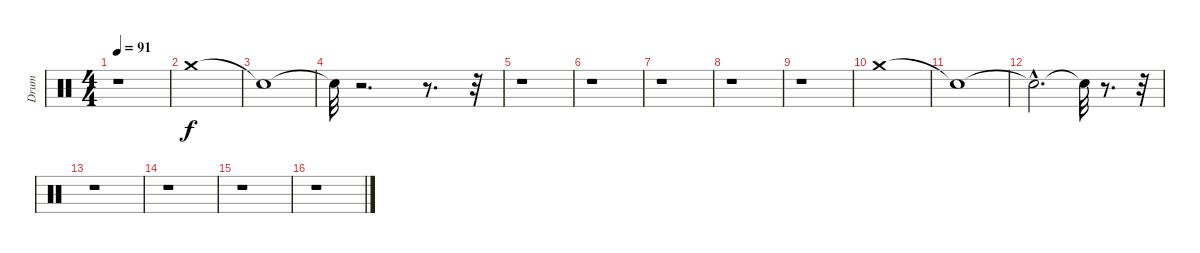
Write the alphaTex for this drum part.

\track ("Drum" "Drum") {instrument percussion}
\staff {score}
\articulation defaults
\ts (4 4)
\tempo 91
\clef neutral
\ks c
r.1{dy f} |
"Crash medium (hit)".1 |
"Snare (hit)"{t}.1 |
"Snare (hit)"{t}.32 r.2{d} r.8{d} r.32 |
r.1 |
r.1 |
r.1 |
r.1 |
r.1 |
"Crash medium (hit)".1 |
"Snare (hit)"{t}.1 |
"Snare (hit)"{hac t}.2{d} "Snare (hit)"{t}.32 r.8{d} r.32 |
r.1 |
r.1 |
r.1 |
r.1
